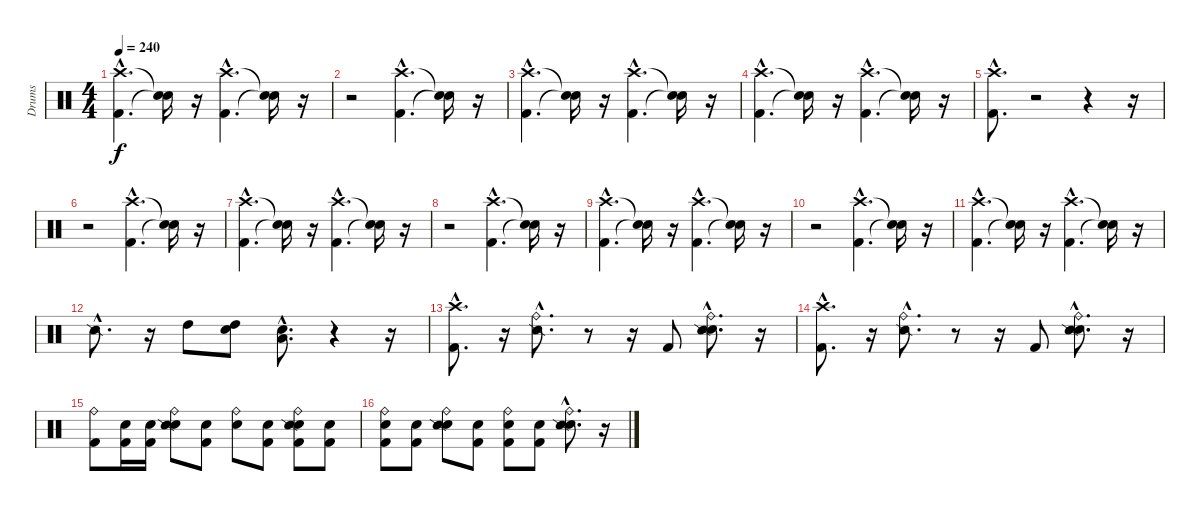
\track ("Drums" "Drums") {instrument percussion}
\staff {score}
\articulation defaults
\ts (4 4)
\tempo 240
\clef neutral
\ks c
("Kick (hit) 2"{hac} "Crash high (hit)"{hac}).4{d dy f} ("Snare (hit)"{t} "Snare (hit)"{t}).16 r.16 ("Kick (hit) 2"{hac} "Crash high (hit)"{hac}).4{d} ("Snare (hit)"{t} "Snare (hit)"{t}).16 r.16 |
r.2 ("Kick (hit) 2"{hac} "Crash high (hit)"{hac}).4{d} ("Snare (hit)"{t} "Snare (hit)"{t}).16 r.16 |
("Kick (hit) 2"{hac} "Crash high (hit)"{hac}).4{d} ("Snare (hit)"{t} "Snare (hit)"{t}).16 r.16 ("Kick (hit) 2"{hac} "Crash high (hit)"{hac}).4{d} ("Snare (hit)"{t} "Snare (hit)"{t}).16 r.16 |
("Kick (hit) 2"{hac} "Crash high (hit)"{hac}).4{d} ("Snare (hit)"{t} "Snare (hit)"{t}).16 r.16 ("Kick (hit) 2"{hac} "Crash high (hit)"{hac}).4{d} ("Snare (hit)"{t} "Snare (hit)"{t}).16 r.16 |
("Kick (hit) 2"{hac} "Crash high (hit)"{hac}).8{d} r.2 r.4 r.16 |
r.2 ("Kick (hit) 2"{hac} "Crash high (hit)"{hac}).4{d} ("Snare (hit)"{t} "Snare (hit)"{t}).16 r.16 |
("Kick (hit) 2"{hac} "Crash high (hit)"{hac}).4{d} ("Snare (hit)"{t} "Snare (hit)"{t}).16 r.16 ("Kick (hit) 2"{hac} "Crash high (hit)"{hac}).4{d} ("Snare (hit)"{t} "Snare (hit)"{t}).16 r.16 |
r.2 ("Kick (hit) 2"{hac} "Crash high (hit)"{hac}).4{d} ("Snare (hit)"{t} "Snare (hit)"{t}).16 r.16 |
("Kick (hit) 2"{hac} "Crash high (hit)"{hac}).4{d} ("Snare (hit)"{t} "Snare (hit)"{t}).16 r.16 ("Kick (hit) 2"{hac} "Crash high (hit)"{hac}).4{d} ("Snare (hit)"{t} "Snare (hit)"{t}).16 r.16 |
r.2 ("Kick (hit) 2"{hac} "Crash high (hit)"{hac}).4{d} ("Snare (hit)"{t} "Snare (hit)"{t}).16 r.16 |
("Kick (hit) 2"{hac} "Crash high (hit)"{hac}).4{d} ("Snare (hit)"{t} "Snare (hit)"{t}).16 r.16 ("Kick (hit) 2"{hac} "Crash high (hit)"{hac}).4{d} ("Snare (hit)"{t} "Snare (hit)"{t}).16 r.16 |
"Snare (side stick) 2"{hac}.8{d} r.16 "High Tom (hit)".8 ("Snare (hit)" "High Tom (hit)").8 ("Snare (hit)"{hac} "Low Tom (hit)"{hac}).8{d} r.4 r.16 |
("Kick (hit) 2"{hac} "Crash high (hit)"{hac}).8{d} r.16 ("Snare (side stick) 2"{hac} "Ride (bell)"{hac}).8{d} r.8 r.16 "Kick (hit) 2".8 ("Snare (hit)"{hac} "Snare (side stick) 2"{hac} "Ride (bell)"{hac}).8{d} r.16 |
("Kick (hit) 2"{hac} "Crash high (hit)"{hac}).8{d} r.16 ("Snare (side stick) 2"{hac} "Ride (bell)"{hac}).8{d} r.8 r.16 "Kick (hit) 2".8 ("Snare (hit)"{hac} "Snare (side stick) 2"{hac} "Ride (bell)"{hac}).8{d} r.16 |
("Kick (hit) 2" "Ride (bell)").8 ("Snare (hit)" "Kick (hit) 2").16 ("Snare (hit)" "Kick (hit) 2").16 ("Snare (hit)" "Ride (bell)" "Snare (side stick) 2").8 ("Snare (hit)" "Kick (hit) 2").8 ("Snare (hit)" "Ride (bell)").8 ("Snare (hit)" "Kick (hit) 2").8 ("Snare (hit)" "Kick (hit) 2" "Ride (bell)" "Snare (side stick) 2").8 ("Snare (hit)" "Kick (hit) 2").8 |
("Snare (hit)" "Kick (hit) 2" "Ride (bell)").8 ("Snare (hit)" "Kick (hit) 2").8 ("Snare (hit)" "Ride (bell)" "Snare (side stick) 2").8 ("Snare (hit)" "Kick (hit) 2").8 ("Snare (hit)" "Kick (hit) 2" "Ride (bell)").8 ("Snare (hit)" "Kick (hit) 2").8 ("Snare (hit)"{hac} "Snare (side stick) 2"{hac} "Ride (bell)"{hac}).8{d} r.16
